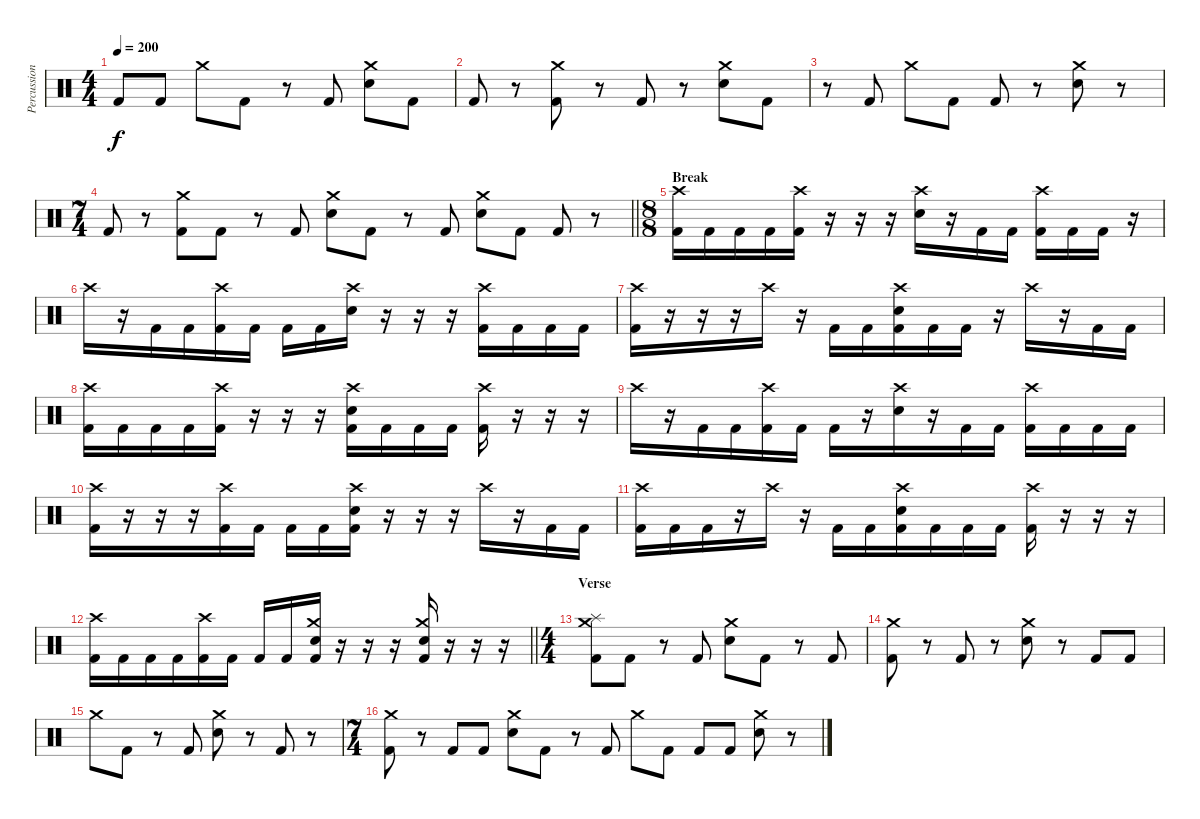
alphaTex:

\track ("Percussions" "Percussion") {instrument percussion}
\staff {score}
\articulation defaults
\ts (4 4)
\tempo 200
\clef neutral
\ks c "Kick (hit) 2".8{dy f} "Kick (hit) 2".8 "Crash medium (hit)".8 "Kick (hit) 2".8
r.8 "Kick (hit) 2".8 ("Crash medium (hit)" "Electric Snare (hit)").8 "Kick (hit) 2".8 |
"Kick (hit) 2".8 r.8 ("Crash medium (hit)" "Kick (hit) 2").8 r.8 "Kick (hit) 2".8 r.8 ("Crash medium (hit)" "Electric Snare (hit)").8 "Kick (hit) 2".8 |
r.8 "Kick (hit) 2".8 "Crash medium (hit)".8 "Kick (hit) 2".8 "Kick (hit) 2".8 r.8 ("Crash medium (hit)" "Electric Snare (hit)").8 r.8 |
\ts (7 4)
\barLineRight lightlight "Kick (hit) 2".8
r.8 ("Crash medium (hit)" "Kick (hit) 2").8 "Kick (hit) 2".8 r.8 "Kick (hit) 2".8 ("Crash medium (hit)" "Electric Snare (hit)").8 "Kick (hit) 2".8 r.8 "Kick (hit) 2".8 ("Crash medium (hit)" "Electric Snare (hit)").8 "Kick (hit) 2".8 "Kick (hit) 2".8 r.8 |
\ts (8 8)
\section ("" "Break")
("Crash high (hit)" "Kick (hit) 2").16 "Kick (hit) 2".16 "Kick (hit) 2".16 "Kick (hit) 2".16 ("Crash high (hit)" "Kick (hit) 2").16 r.16 r.16 r.16 ("Crash high (hit)" "Electric Snare (hit)").16 r.16 "Kick (hit) 2".16 "Kick (hit) 2".16 ("Crash high (hit)" "Kick (hit) 2").16 "Kick (hit) 2".16 "Kick (hit) 2".16 r.16 |
"Crash high (hit)".16 r.16 "Kick (hit) 2".16 "Kick (hit) 2".16 ("Crash high (hit)" "Kick (hit) 2").16 "Kick (hit) 2".16 "Kick (hit) 2".16 "Kick (hit) 2".16 ("Crash high (hit)" "Electric Snare (hit)").16 r.16 r.16 r.16 ("Crash high (hit)" "Kick (hit) 2").16 "Kick (hit) 2".16 "Kick (hit) 2".16 "Kick (hit) 2".16 |
("Crash high (hit)" "Kick (hit) 2").16 r.16 r.16 r.16 "Crash high (hit)".16 r.16 "Kick (hit) 2".16 "Kick (hit) 2".16 ("Crash high (hit)" "Electric Snare (hit)" "Kick (hit) 2").16 "Kick (hit) 2".16 "Kick (hit) 2".16 r.16 "Crash high (hit)".16 r.16 "Kick (hit) 2".16 "Kick (hit) 2".16 |
("Crash high (hit)" "Kick (hit) 2").16 "Kick (hit) 2".16 "Kick (hit) 2".16 "Kick (hit) 2".16 ("Crash high (hit)" "Kick (hit) 2").16 r.16 r.16 r.16 ("Crash high (hit)" "Electric Snare (hit)" "Kick (hit) 2").16 "Kick (hit) 2".16 "Kick (hit) 2".16 "Kick (hit) 2".16 ("Crash high (hit)" "Kick (hit) 2").16 r.16 r.16 r.16 |
"Crash high (hit)".16 r.16 "Kick (hit) 2".16 "Kick (hit) 2".16 ("Crash high (hit)" "Kick (hit) 2").16 "Kick (hit) 2".16 "Kick (hit) 2".16 r.16 ("Crash high (hit)" "Electric Snare (hit)").16 r.16 "Kick (hit) 2".16 "Kick (hit) 2".16 ("Crash high (hit)" "Kick (hit) 2").16 "Kick (hit) 2".16 "Kick (hit) 2".16 "Kick (hit) 2".16 |
("Crash high (hit)" "Kick (hit) 2").16 r.16 r.16 r.16 ("Crash high (hit)" "Kick (hit) 2").16 "Kick (hit) 2".16 "Kick (hit) 2".16 "Kick (hit) 2".16 ("Crash high (hit)" "Electric Snare (hit)" "Kick (hit) 2").16 r.16 r.16 r.16 "Crash high (hit)".16 r.16 "Kick (hit) 2".16 "Kick (hit) 2".16 |
("Crash high (hit)" "Kick (hit) 2").16 "Kick (hit) 2".16 "Kick (hit) 2".16 r.16 "Crash high (hit)".16 r.16 "Kick (hit) 2".16 "Kick (hit) 2".16 ("Crash high (hit)" "Electric Snare (hit)" "Kick (hit) 2").16 "Kick (hit) 2".16 "Kick (hit) 2".16 "Kick (hit) 2".16 ("Crash high (hit)" "Kick (hit) 2").16 r.16 r.16 r.16 |
\barLineRight lightlight
("Crash high (hit)" "Kick (hit) 2").16 "Kick (hit) 2".16 "Kick (hit) 2".16 "Kick (hit) 2".16 ("Crash high (hit)" "Kick (hit) 2").16 "Kick (hit) 2".16 "Kick (hit) 2".16 "Kick (hit) 2".16 ("Crash medium (hit)" "Electric Snare (hit)" "Kick (hit) 2").16 r.16 r.16 r.16 ("Crash medium (hit)" "Electric Snare (hit)" "Kick (hit) 2").16 r.16 r.16 r.16 |
\ts (4 4)
\section ("" "Verse")
("Crash medium (hit)" "Splash (hit)" "Kick (hit) 2").8 "Kick (hit) 2".8 r.8 "Kick (hit) 2".8 ("Crash medium (hit)" "Electric Snare (hit)").8 "Kick (hit) 2".8 r.8 "Kick (hit) 2".8 |
("Crash medium (hit)" "Kick (hit) 2").8 r.8 "Kick (hit) 2".8 r.8 ("Crash medium (hit)" "Electric Snare (hit)").8 r.8 "Kick (hit) 2".8 "Kick (hit) 2".8 |
"Crash medium (hit)".8 "Kick (hit) 2".8 r.8 "Kick (hit) 2".8 ("Crash medium (hit)" "Electric Snare (hit)").8 r.8 "Kick (hit) 2".8 r.8 |
\ts (7 4)
("Crash medium (hit)" "Kick (hit) 2").8 r.8 "Kick (hit) 2".8 "Kick (hit) 2".8 ("Crash medium (hit)" "Electric Snare (hit)").8 "Kick (hit) 2".8 r.8 "Kick (hit) 2".8 "Crash medium (hit)".8 "Kick (hit) 2".8 "Kick (hit) 2".8 "Kick (hit) 2".8 ("Crash medium (hit)" "Electric Snare (hit)").8 r.8
